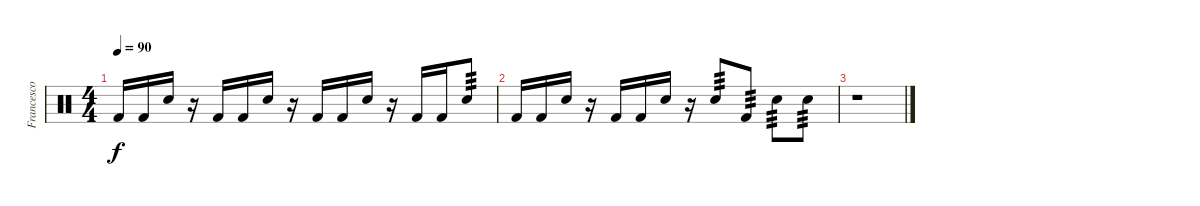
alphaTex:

\track ("Francesco -Franz- Valente" "Francesco ") {instrument percussion}
\staff {score}
\articulation defaults
\ts (4 4)
\tempo 90
\clef neutral
\ks c "Kick (hit) 2".16{dy f} "Kick (hit) 2".16 "Electric Snare (hit)".16
r.16 "Kick (hit) 2".16 "Kick (hit) 2".16 "Electric Snare (hit)".16 r.16 "Kick (hit) 2".16 "Kick (hit) 2".16 "Electric Snare (hit)".16 r.16 "Kick (hit) 2".16 "Kick (hit) 2".16 "Electric Snare (hit)".8{tp 3} |
"Kick (hit) 2".16 "Kick (hit) 2".16 "Electric Snare (hit)".16 r.16 "Kick (hit) 2".16 "Kick (hit) 2".16 "Electric Snare (hit)".16 r.16 "Electric Snare (hit)".8{tp 3} "Kick (hit) 2".8{tp 3} "Electric Snare (hit)".8{tp 3} "Snare (hit) 2".8{tp 3} |
r.1
